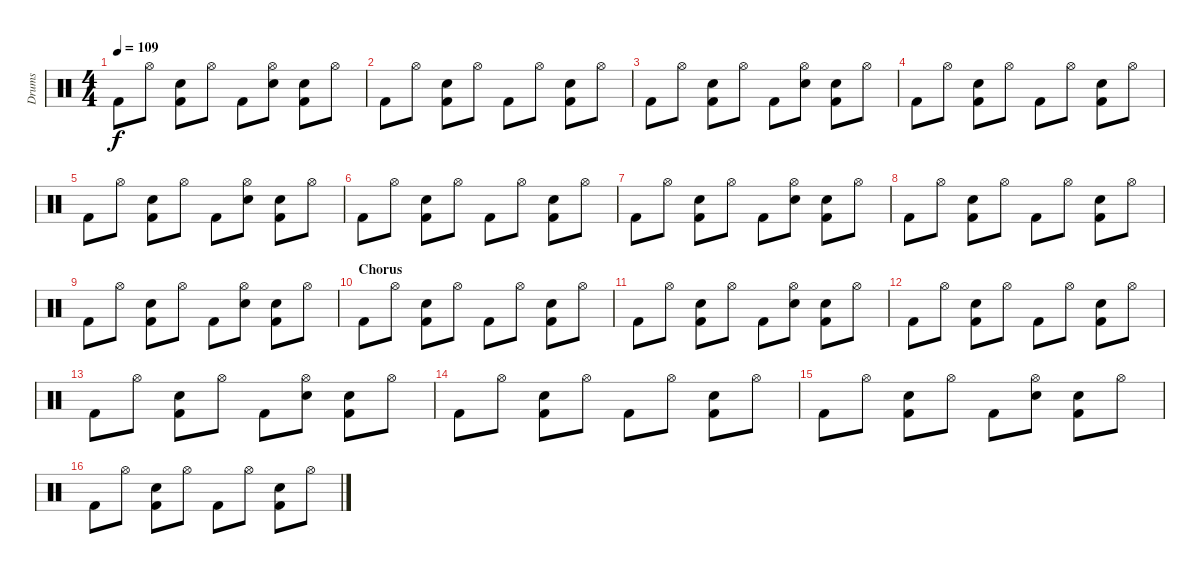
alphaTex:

\track ("Drums" "Drums") {instrument percussion}
\staff {score}
\articulation defaults
\ts (4 4)
\tempo 109
\clef neutral
\ks c "Kick (hit) 2".8{dy f} "Hi-Hat (open)".8
("Hand Clap (hit)" "Kick (hit) 2").8 "Hi-Hat (open)".8 "Kick (hit) 2".8 ("Hi-Hat (open)" "Hand Clap (hit)").8 ("Hand Clap (hit)" "Kick (hit) 2").8 "Hi-Hat (open)".8 |
"Kick (hit) 2".8 "Hi-Hat (open)".8 ("Hand Clap (hit)" "Kick (hit) 2").8 "Hi-Hat (open)".8 "Kick (hit) 2".8 "Hi-Hat (open)".8 ("Hand Clap (hit)" "Kick (hit) 2").8 "Hi-Hat (open)".8 |
"Kick (hit) 2".8 "Hi-Hat (open)".8 ("Hand Clap (hit)" "Kick (hit) 2").8 "Hi-Hat (open)".8 "Kick (hit) 2".8 ("Hi-Hat (open)" "Hand Clap (hit)").8 ("Hand Clap (hit)" "Kick (hit) 2").8 "Hi-Hat (open)".8 |
"Kick (hit) 2".8 "Hi-Hat (open)".8 ("Hand Clap (hit)" "Kick (hit) 2").8 "Hi-Hat (open)".8 "Kick (hit) 2".8 "Hi-Hat (open)".8 ("Hand Clap (hit)" "Kick (hit) 2").8 "Hi-Hat (open)".8 |
"Kick (hit) 2".8 "Hi-Hat (open)".8 ("Hand Clap (hit)" "Kick (hit) 2").8 "Hi-Hat (open)".8 "Kick (hit) 2".8 ("Hi-Hat (open)" "Hand Clap (hit)").8 ("Hand Clap (hit)" "Kick (hit) 2").8 "Hi-Hat (open)".8 |
"Kick (hit) 2".8 "Hi-Hat (open)".8 ("Hand Clap (hit)" "Kick (hit) 2").8 "Hi-Hat (open)".8 "Kick (hit) 2".8 "Hi-Hat (open)".8 ("Hand Clap (hit)" "Kick (hit) 2").8 "Hi-Hat (open)".8 |
"Kick (hit) 2".8 "Hi-Hat (open)".8 ("Hand Clap (hit)" "Kick (hit) 2").8 "Hi-Hat (open)".8 "Kick (hit) 2".8 ("Hi-Hat (open)" "Hand Clap (hit)").8 ("Hand Clap (hit)" "Kick (hit) 2").8 "Hi-Hat (open)".8 |
"Kick (hit) 2".8 "Hi-Hat (open)".8 ("Hand Clap (hit)" "Kick (hit) 2").8 "Hi-Hat (open)".8 "Kick (hit) 2".8 "Hi-Hat (open)".8 ("Hand Clap (hit)" "Kick (hit) 2").8 "Hi-Hat (open)".8 |
"Kick (hit) 2".8 "Hi-Hat (open)".8 ("Hand Clap (hit)" "Kick (hit) 2").8 "Hi-Hat (open)".8 "Kick (hit) 2".8 ("Hi-Hat (open)" "Hand Clap (hit)").8 ("Hand Clap (hit)" "Kick (hit) 2").8 "Hi-Hat (open)".8 |
\section ("" "Chorus")
"Kick (hit) 2".8 "Hi-Hat (open)".8 ("Hand Clap (hit)" "Kick (hit) 2").8 "Hi-Hat (open)".8 "Kick (hit) 2".8 "Hi-Hat (open)".8 ("Hand Clap (hit)" "Kick (hit) 2").8 "Hi-Hat (open)".8 |
"Kick (hit) 2".8 "Hi-Hat (open)".8 ("Hand Clap (hit)" "Kick (hit) 2").8 "Hi-Hat (open)".8 "Kick (hit) 2".8 ("Hi-Hat (open)" "Hand Clap (hit)").8 ("Hand Clap (hit)" "Kick (hit) 2").8 "Hi-Hat (open)".8 |
"Kick (hit) 2".8 "Hi-Hat (open)".8 ("Hand Clap (hit)" "Kick (hit) 2").8 "Hi-Hat (open)".8 "Kick (hit) 2".8 "Hi-Hat (open)".8 ("Hand Clap (hit)" "Kick (hit) 2").8 "Hi-Hat (open)".8 |
"Kick (hit) 2".8 "Hi-Hat (open)".8 ("Hand Clap (hit)" "Kick (hit) 2").8 "Hi-Hat (open)".8 "Kick (hit) 2".8 ("Hi-Hat (open)" "Hand Clap (hit)").8 ("Hand Clap (hit)" "Kick (hit) 2").8 "Hi-Hat (open)".8 |
"Kick (hit) 2".8 "Hi-Hat (open)".8 ("Hand Clap (hit)" "Kick (hit) 2").8 "Hi-Hat (open)".8 "Kick (hit) 2".8 "Hi-Hat (open)".8 ("Hand Clap (hit)" "Kick (hit) 2").8 "Hi-Hat (open)".8 |
"Kick (hit) 2".8 "Hi-Hat (open)".8 ("Hand Clap (hit)" "Kick (hit) 2").8 "Hi-Hat (open)".8 "Kick (hit) 2".8 ("Hi-Hat (open)" "Hand Clap (hit)").8 ("Hand Clap (hit)" "Kick (hit) 2").8 "Hi-Hat (open)".8 |
"Kick (hit) 2".8 "Hi-Hat (open)".8 ("Hand Clap (hit)" "Kick (hit) 2").8 "Hi-Hat (open)".8 "Kick (hit) 2".8 "Hi-Hat (open)".8 ("Hand Clap (hit)" "Kick (hit) 2").8 "Hi-Hat (open)".8
